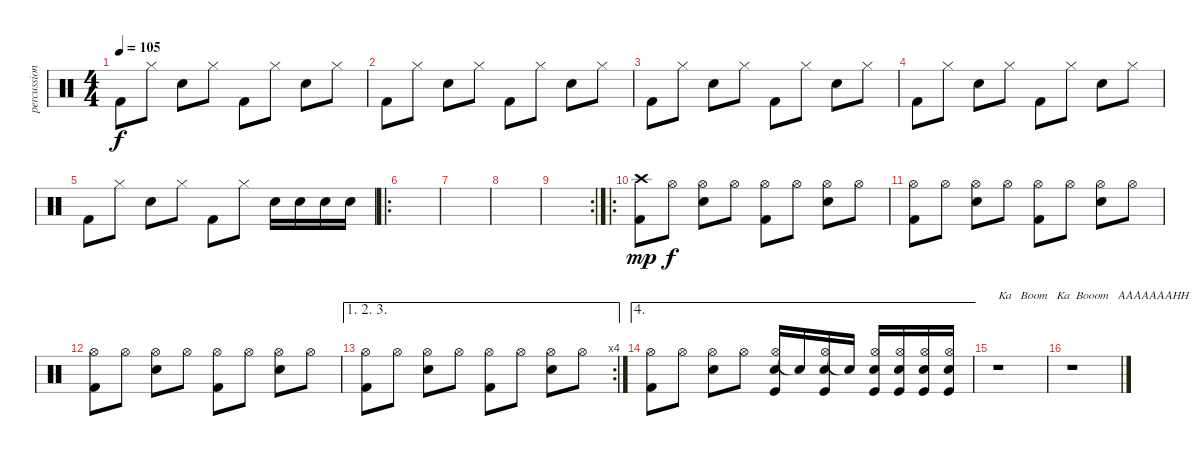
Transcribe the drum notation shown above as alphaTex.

\track ("percussions" "percussion") {instrument percussion}
\staff {score}
\articulation defaults
\ts (4 4)
\tempo 105
\clef neutral
\ks c "Kick (hit) 2".8{dy f} "Hi-Hat (closed)".8 "Electric Snare (hit)".8 "Hi-Hat (closed)".8 "Kick (hit) 2".8 "Hi-Hat (closed)".8 "Electric Snare (hit)".8 "Hi-Hat (closed)".8
|
"Kick (hit) 2".8 "Hi-Hat (closed)".8 "Electric Snare (hit)".8 "Hi-Hat (closed)".8 "Kick (hit) 2".8 "Hi-Hat (closed)".8 "Electric Snare (hit)".8 "Hi-Hat (closed)".8 |
"Kick (hit) 2".8 "Hi-Hat (closed)".8 "Electric Snare (hit)".8 "Hi-Hat (closed)".8 "Kick (hit) 2".8 "Hi-Hat (closed)".8 "Electric Snare (hit)".8 "Hi-Hat (closed)".8 |
"Kick (hit) 2".8 "Hi-Hat (closed)".8 "Electric Snare (hit)".8 "Hi-Hat (closed)".8 "Kick (hit) 2".8 "Hi-Hat (closed)".8 "Electric Snare (hit)".8 "Hi-Hat (closed)".8 |
"Kick (hit) 2".8 "Hi-Hat (closed)".8 "Electric Snare (hit)".8 "Hi-Hat (closed)".8 "Kick (hit) 2".8 "Hi-Hat (closed)".8 "Electric Snare (hit)".16 "Electric Snare (hit)".16 "Electric Snare (hit)".16 "Electric Snare (hit)".16 |
\ro
|
|
|
\rc 2
|
\ro
("Crash high (hit)" "Kick (hit) 2").8{dy mp} "Hi-Hat (open)".8{dy f} ("Hi-Hat (open)" "Electric Snare (hit)").8 "Hi-Hat (open)".8 ("Hi-Hat (open)" "Kick (hit) 2").8 "Hi-Hat (open)".8 ("Hi-Hat (open)" "Electric Snare (hit)").8 "Hi-Hat (open)".8 |
("Hi-Hat (open)" "Kick (hit) 2").8 "Hi-Hat (open)".8 ("Hi-Hat (open)" "Electric Snare (hit)").8 "Hi-Hat (open)".8 ("Hi-Hat (open)" "Kick (hit) 2").8 "Hi-Hat (open)".8 ("Hi-Hat (open)" "Electric Snare (hit)").8 "Hi-Hat (open)".8 |
("Hi-Hat (open)" "Kick (hit) 2").8 "Hi-Hat (open)".8 ("Hi-Hat (open)" "Electric Snare (hit)").8 "Hi-Hat (open)".8 ("Hi-Hat (open)" "Kick (hit) 2").8 "Hi-Hat (open)".8 ("Hi-Hat (open)" "Electric Snare (hit)").8 "Hi-Hat (open)".8 |
\ae (1 2 3)
\rc 4
("Hi-Hat (open)" "Kick (hit) 2").8 "Hi-Hat (open)".8 ("Hi-Hat (open)" "Electric Snare (hit)").8 "Hi-Hat (open)".8 ("Hi-Hat (open)" "Kick (hit) 2").8 "Hi-Hat (open)".8 ("Hi-Hat (open)" "Electric Snare (hit)").8 "Hi-Hat (open)".8 |
\ae 4
("Hi-Hat (open)" "Kick (hit) 2").8 "Hi-Hat (open)".8 ("Hi-Hat (open)" "Electric Snare (hit)").8 "Hi-Hat (open)".8 ("Hi-Hat (open)" "Kick (hit)" "Electric Snare (hit)").16 "Snare (hit)"{t}.16 ("Hi-Hat (open)" "Kick (hit)" "Electric Snare (hit)").16 "Snare (hit)"{t}.16 ("Hi-Hat (open)" "Kick (hit)" "Electric Snare (hit)").16 ("Hi-Hat (open)" "Kick (hit)" "Electric Snare (hit)").16 ("Hi-Hat (open)" "Kick (hit)" "Electric Snare (hit)").16 ("Hi-Hat (open)" "Kick (hit)" "Electric Snare (hit)").16 |
r.1{txt "Ka   Boom   Ka  Booom   AAAAAAAHH"} |
r.1
